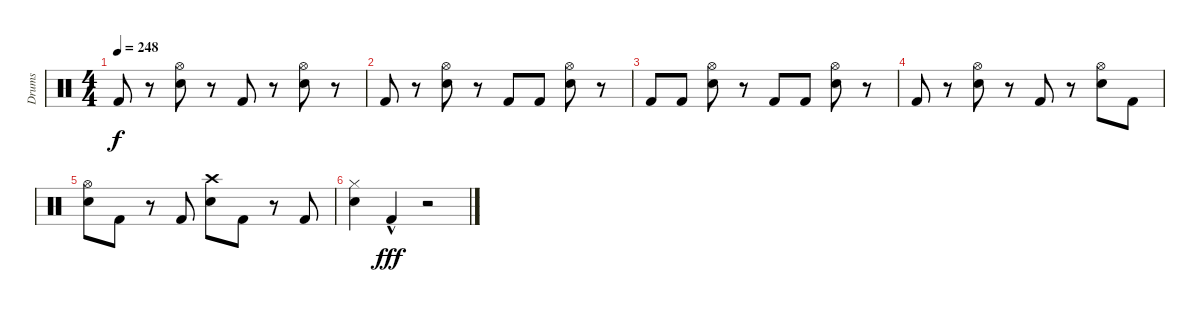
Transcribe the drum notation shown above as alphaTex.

\track ("Drums" "Drums") {instrument percussion}
\staff {score}
\articulation defaults
\ts (4 4)
\tempo 248
\clef neutral
\ks c "Kick (hit) 2".8{dy f}
r.8 ("Electric Snare (hit)" "Hi-Hat (open)").8 r.8 "Kick (hit) 2".8 r.8 ("Electric Snare (hit)" "Hi-Hat (open)").8 r.8 |
"Kick (hit) 2".8 r.8 ("Electric Snare (hit)" "Hi-Hat (open)").8 r.8 "Kick (hit) 2".8 "Kick (hit) 2".8 ("Electric Snare (hit)" "Hi-Hat (open)").8 r.8 |
"Kick (hit) 2".8 "Kick (hit) 2".8 ("Electric Snare (hit)" "Hi-Hat (open)").8 r.8 "Kick (hit) 2".8 "Kick (hit) 2".8 ("Electric Snare (hit)" "Hi-Hat (open)").8 r.8 |
"Kick (hit) 2".8 r.8 ("Electric Snare (hit)" "Hi-Hat (open)").8 r.8 "Kick (hit) 2".8 r.8 ("Electric Snare (hit)" "Hi-Hat (open)").8 "Kick (hit) 2".8 |
("Electric Snare (hit)" "Hi-Hat (open)").8 "Kick (hit) 2".8 r.8 "Kick (hit) 2".8 ("Electric Snare (hit)" "Crash high (hit)").8 "Kick (hit) 2".8 r.8 "Kick (hit) 2".8 |
("Hi-Hat (closed)" "Electric Snare (hit)").4 "Kick (hit) 2"{hac}.4{dy fff} r.2
